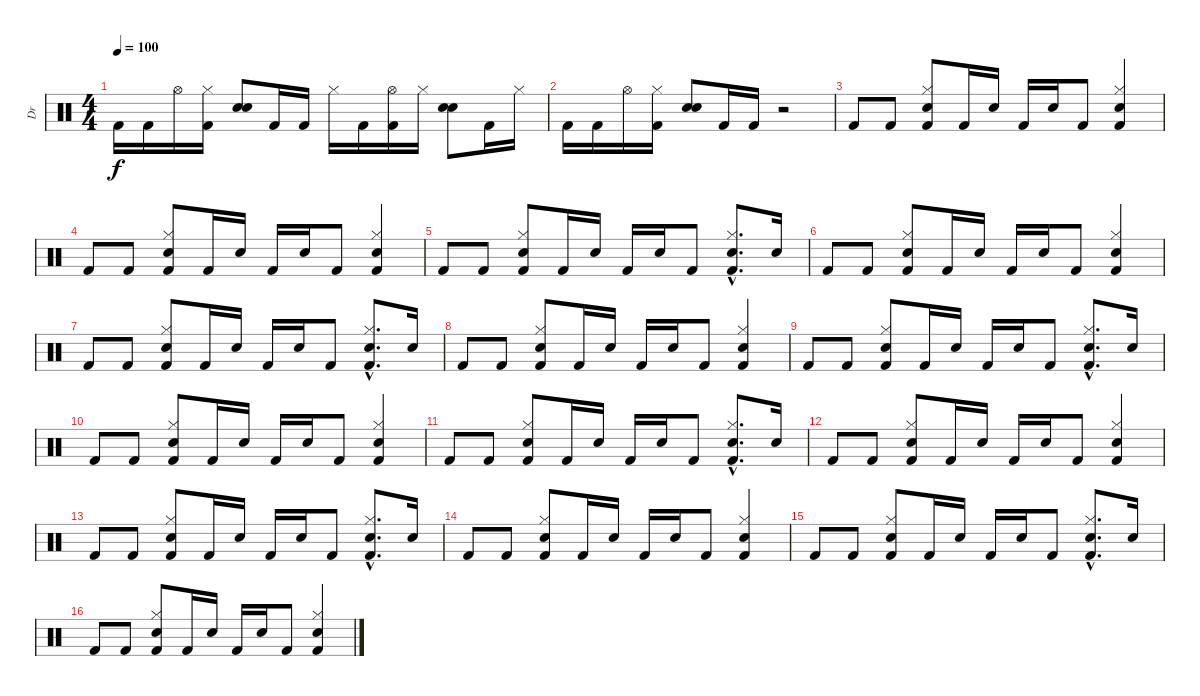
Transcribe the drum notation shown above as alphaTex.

\track ("Dr" "Dr") {instrument percussion}
\staff {score}
\articulation defaults
\ts (4 4)
\tempo 100
\clef neutral
\ks c "Kick (hit) 2".16{dy f} "Kick (hit) 2".16 "Hi-Hat (open)".16
("Hi-Hat (closed)" "Kick (hit) 2").16 ("Electric Snare (hit)" "Hand Clap (hit)").8 "Kick (hit) 2".16 "Kick (hit) 2".16 "Hi-Hat (closed)".16 "Kick (hit) 2".16 ("Hi-Hat (open)" "Kick (hit) 2").16 "Hi-Hat (closed)".16 ("Electric Snare (hit)" "Hand Clap (hit)").8 "Kick (hit) 2".16 "Hi-Hat (closed)".16 |
"Kick (hit) 2".16 "Kick (hit) 2".16 "Hi-Hat (open)".16 ("Hi-Hat (closed)" "Kick (hit) 2").16 ("Electric Snare (hit)" "Hand Clap (hit)").8 "Kick (hit) 2".16 "Kick (hit) 2".16 r.2 |
"Kick (hit) 2".8 "Kick (hit) 2".8 ("Hi-Hat (closed)" "Electric Snare (hit)" "Kick (hit) 2").8 "Kick (hit) 2".16 "Electric Snare (hit)".16 "Kick (hit) 2".16 "Electric Snare (hit)".16 "Kick (hit) 2".8 ("Hi-Hat (closed)" "Electric Snare (hit)" "Kick (hit) 2").4 |
"Kick (hit) 2".8 "Kick (hit) 2".8 ("Hi-Hat (closed)" "Electric Snare (hit)" "Kick (hit) 2").8 "Kick (hit) 2".16 "Electric Snare (hit)".16 "Kick (hit) 2".16 "Electric Snare (hit)".16 "Kick (hit) 2".8 ("Hi-Hat (closed)" "Electric Snare (hit)" "Kick (hit) 2").4 |
"Kick (hit) 2".8 "Kick (hit) 2".8 ("Hi-Hat (closed)" "Electric Snare (hit)" "Kick (hit) 2").8 "Kick (hit) 2".16 "Electric Snare (hit)".16 "Kick (hit) 2".16 "Electric Snare (hit)".16 "Kick (hit) 2".8 ("Hi-Hat (closed)"{hac} "Electric Snare (hit)"{hac} "Kick (hit) 2"{hac}).8{d} "Electric Snare (hit)".16 |
"Kick (hit) 2".8 "Kick (hit) 2".8 ("Hi-Hat (closed)" "Electric Snare (hit)" "Kick (hit) 2").8 "Kick (hit) 2".16 "Electric Snare (hit)".16 "Kick (hit) 2".16 "Electric Snare (hit)".16 "Kick (hit) 2".8 ("Hi-Hat (closed)" "Electric Snare (hit)" "Kick (hit) 2").4 |
"Kick (hit) 2".8 "Kick (hit) 2".8 ("Hi-Hat (closed)" "Electric Snare (hit)" "Kick (hit) 2").8 "Kick (hit) 2".16 "Electric Snare (hit)".16 "Kick (hit) 2".16 "Electric Snare (hit)".16 "Kick (hit) 2".8 ("Hi-Hat (closed)"{hac} "Electric Snare (hit)"{hac} "Kick (hit) 2"{hac}).8{d} "Electric Snare (hit)".16 |
"Kick (hit) 2".8 "Kick (hit) 2".8 ("Hi-Hat (closed)" "Electric Snare (hit)" "Kick (hit) 2").8 "Kick (hit) 2".16 "Electric Snare (hit)".16 "Kick (hit) 2".16 "Electric Snare (hit)".16 "Kick (hit) 2".8 ("Hi-Hat (closed)" "Electric Snare (hit)" "Kick (hit) 2").4 |
"Kick (hit) 2".8 "Kick (hit) 2".8 ("Hi-Hat (closed)" "Electric Snare (hit)" "Kick (hit) 2").8 "Kick (hit) 2".16 "Electric Snare (hit)".16 "Kick (hit) 2".16 "Electric Snare (hit)".16 "Kick (hit) 2".8 ("Hi-Hat (closed)"{hac} "Electric Snare (hit)"{hac} "Kick (hit) 2"{hac}).8{d} "Electric Snare (hit)".16 |
"Kick (hit) 2".8 "Kick (hit) 2".8 ("Hi-Hat (closed)" "Electric Snare (hit)" "Kick (hit) 2").8 "Kick (hit) 2".16 "Electric Snare (hit)".16 "Kick (hit) 2".16 "Electric Snare (hit)".16 "Kick (hit) 2".8 ("Hi-Hat (closed)" "Electric Snare (hit)" "Kick (hit) 2").4 |
"Kick (hit) 2".8 "Kick (hit) 2".8 ("Hi-Hat (closed)" "Electric Snare (hit)" "Kick (hit) 2").8 "Kick (hit) 2".16 "Electric Snare (hit)".16 "Kick (hit) 2".16 "Electric Snare (hit)".16 "Kick (hit) 2".8 ("Hi-Hat (closed)"{hac} "Electric Snare (hit)"{hac} "Kick (hit) 2"{hac}).8{d} "Electric Snare (hit)".16 |
"Kick (hit) 2".8 "Kick (hit) 2".8 ("Hi-Hat (closed)" "Electric Snare (hit)" "Kick (hit) 2").8 "Kick (hit) 2".16 "Electric Snare (hit)".16 "Kick (hit) 2".16 "Electric Snare (hit)".16 "Kick (hit) 2".8 ("Hi-Hat (closed)" "Electric Snare (hit)" "Kick (hit) 2").4 |
"Kick (hit) 2".8 "Kick (hit) 2".8 ("Hi-Hat (closed)" "Electric Snare (hit)" "Kick (hit) 2").8 "Kick (hit) 2".16 "Electric Snare (hit)".16 "Kick (hit) 2".16 "Electric Snare (hit)".16 "Kick (hit) 2".8 ("Hi-Hat (closed)"{hac} "Electric Snare (hit)"{hac} "Kick (hit) 2"{hac}).8{d} "Electric Snare (hit)".16 |
"Kick (hit) 2".8 "Kick (hit) 2".8 ("Hi-Hat (closed)" "Electric Snare (hit)" "Kick (hit) 2").8 "Kick (hit) 2".16 "Electric Snare (hit)".16 "Kick (hit) 2".16 "Electric Snare (hit)".16 "Kick (hit) 2".8 ("Hi-Hat (closed)" "Electric Snare (hit)" "Kick (hit) 2").4 |
"Kick (hit) 2".8 "Kick (hit) 2".8 ("Hi-Hat (closed)" "Electric Snare (hit)" "Kick (hit) 2").8 "Kick (hit) 2".16 "Electric Snare (hit)".16 "Kick (hit) 2".16 "Electric Snare (hit)".16 "Kick (hit) 2".8 ("Hi-Hat (closed)"{hac} "Electric Snare (hit)"{hac} "Kick (hit) 2"{hac}).8{d} "Electric Snare (hit)".16 |
"Kick (hit) 2".8 "Kick (hit) 2".8 ("Hi-Hat (closed)" "Electric Snare (hit)" "Kick (hit) 2").8 "Kick (hit) 2".16 "Electric Snare (hit)".16 "Kick (hit) 2".16 "Electric Snare (hit)".16 "Kick (hit) 2".8 ("Hi-Hat (closed)" "Electric Snare (hit)" "Kick (hit) 2").4
